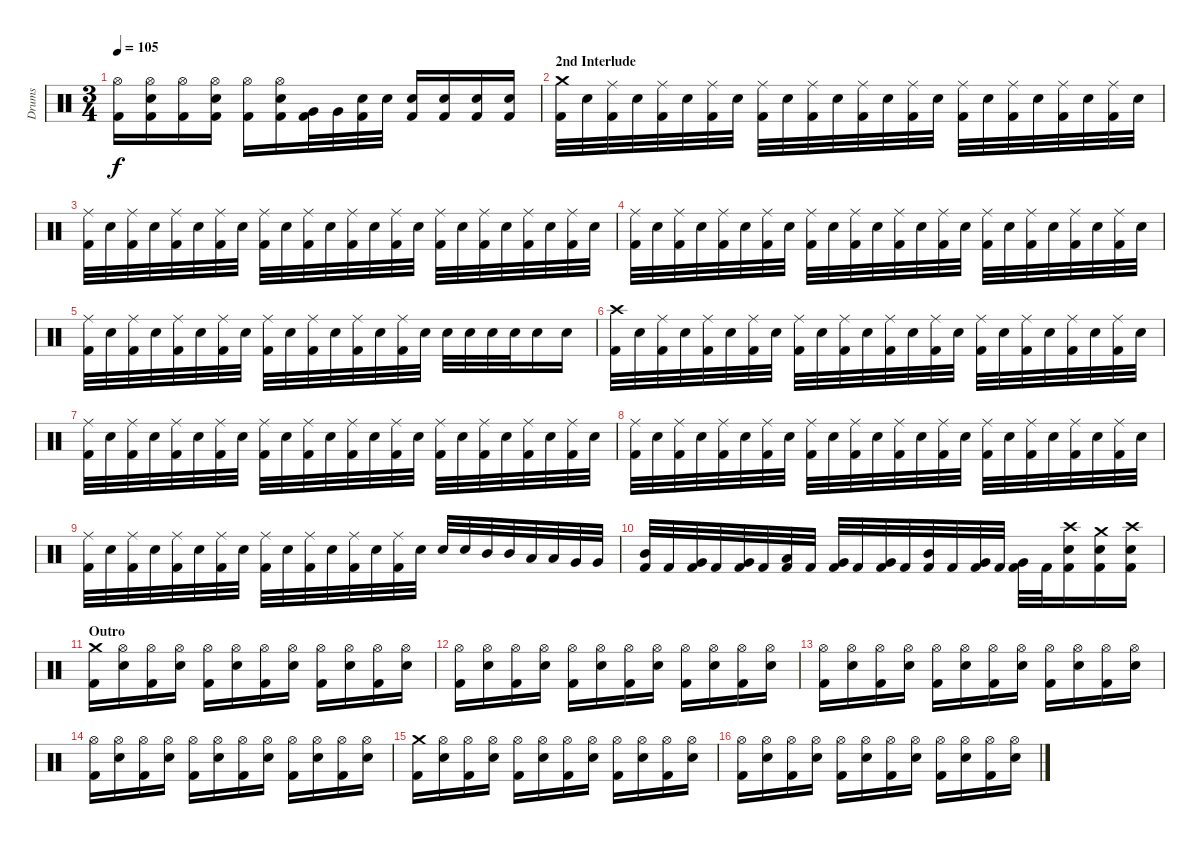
\track ("Drums" "Drums") {instrument percussion}
\staff {score}
\articulation defaults
\ts (3 4)
\tempo 105
\clef neutral
\ks c
("Kick (hit) 2" "Hi-Hat (open)").16{dy f} ("Kick (hit) 2" "Electric Snare (hit)" "Hi-Hat (open)").16 ("Kick (hit) 2" "Hi-Hat (open)").16 ("Kick (hit) 2" "Electric Snare (hit)" "Hi-Hat (open)").16 ("Kick (hit) 2" "Hi-Hat (open)").16 ("Kick (hit) 2" "Electric Snare (hit)" "Hi-Hat (open)").16 ("Kick (hit) 2" "Very Low Tom (hit)").32 "Very Low Tom (hit)".32 ("Kick (hit) 2" "Electric Snare (hit)").32 "Electric Snare (hit)".32 ("Kick (hit) 2" "Electric Snare (hit)").16 ("Kick (hit) 2" "Electric Snare (hit)").16 ("Kick (hit) 2" "Electric Snare (hit)").16 ("Kick (hit) 2" "Electric Snare (hit)").16 |
\section ("" "2nd Interlude")
("Kick (hit) 2" "Crash medium (hit)").32 "Electric Snare (hit)".32 ("Kick (hit) 2" "Ride (middle)").32 "Electric Snare (hit)".32 ("Kick (hit) 2" "Ride (middle)").32 "Electric Snare (hit)".32 ("Kick (hit) 2" "Ride (middle)").32 "Electric Snare (hit)".32 ("Kick (hit) 2" "Ride (middle)").32 "Electric Snare (hit)".32 ("Kick (hit) 2" "Ride (middle)").32 "Electric Snare (hit)".32 ("Kick (hit) 2" "Ride (middle)").32 "Electric Snare (hit)".32 ("Kick (hit) 2" "Ride (middle)").32 "Electric Snare (hit)".32 ("Kick (hit) 2" "Ride (middle)").32 "Electric Snare (hit)".32 ("Kick (hit) 2" "Ride (middle)").32 "Electric Snare (hit)".32 ("Kick (hit) 2" "Ride (middle)").32 "Electric Snare (hit)".32 ("Kick (hit) 2" "Ride (middle)").32 "Electric Snare (hit)".32 |
("Kick (hit) 2" "Ride (middle)").32 "Electric Snare (hit)".32 ("Kick (hit) 2" "Ride (middle)").32 "Electric Snare (hit)".32 ("Kick (hit) 2" "Ride (middle)").32 "Electric Snare (hit)".32 ("Kick (hit) 2" "Ride (middle)").32 "Electric Snare (hit)".32 ("Kick (hit) 2" "Ride (middle)").32 "Electric Snare (hit)".32 ("Kick (hit) 2" "Ride (middle)").32 "Electric Snare (hit)".32 ("Kick (hit) 2" "Ride (middle)").32 "Electric Snare (hit)".32 ("Kick (hit) 2" "Ride (middle)").32 "Electric Snare (hit)".32 ("Kick (hit) 2" "Ride (middle)").32 "Electric Snare (hit)".32 ("Kick (hit) 2" "Ride (middle)").32 "Electric Snare (hit)".32 ("Kick (hit) 2" "Ride (middle)").32 "Electric Snare (hit)".32 ("Kick (hit) 2" "Ride (middle)").32 "Electric Snare (hit)".32 |
("Kick (hit) 2" "Ride (middle)").32 "Electric Snare (hit)".32 ("Kick (hit) 2" "Ride (middle)").32 "Electric Snare (hit)".32 ("Kick (hit) 2" "Ride (middle)").32 "Electric Snare (hit)".32 ("Kick (hit) 2" "Ride (middle)").32 "Electric Snare (hit)".32 ("Kick (hit) 2" "Ride (middle)").32 "Electric Snare (hit)".32 ("Kick (hit) 2" "Ride (middle)").32 "Electric Snare (hit)".32 ("Kick (hit) 2" "Ride (middle)").32 "Electric Snare (hit)".32 ("Kick (hit) 2" "Ride (middle)").32 "Electric Snare (hit)".32 ("Kick (hit) 2" "Ride (middle)").32 "Electric Snare (hit)".32 ("Kick (hit) 2" "Ride (middle)").32 "Electric Snare (hit)".32 ("Kick (hit) 2" "Ride (middle)").32 "Electric Snare (hit)".32 ("Kick (hit) 2" "Ride (middle)").32 "Electric Snare (hit)".32 |
("Kick (hit) 2" "Ride (middle)").32 "Electric Snare (hit)".32 ("Kick (hit) 2" "Ride (middle)").32 "Electric Snare (hit)".32 ("Kick (hit) 2" "Ride (middle)").32 "Electric Snare (hit)".32 ("Kick (hit) 2" "Ride (middle)").32 "Electric Snare (hit)".32 ("Kick (hit) 2" "Ride (middle)").32 "Electric Snare (hit)".32 ("Kick (hit) 2" "Ride (middle)").32 "Electric Snare (hit)".32 ("Kick (hit) 2" "Ride (middle)").32 "Electric Snare (hit)".32 ("Kick (hit) 2" "Ride (middle)").32 "Electric Snare (hit)".32 "Electric Snare (hit)".32 "Electric Snare (hit)".32 "Electric Snare (hit)".32 "Electric Snare (hit)".32 "Electric Snare (hit)".16 "Electric Snare (hit)".16 |
("Kick (hit) 2" "Crash high (hit)").32 "Electric Snare (hit)".32 ("Kick (hit) 2" "Ride (middle)").32 "Electric Snare (hit)".32 ("Kick (hit) 2" "Ride (middle)").32 "Electric Snare (hit)".32 ("Kick (hit) 2" "Ride (middle)").32 "Electric Snare (hit)".32 ("Kick (hit) 2" "Ride (middle)").32 "Electric Snare (hit)".32 ("Kick (hit) 2" "Ride (middle)").32 "Electric Snare (hit)".32 ("Kick (hit) 2" "Ride (middle)").32 "Electric Snare (hit)".32 ("Kick (hit) 2" "Ride (middle)").32 "Electric Snare (hit)".32 ("Kick (hit) 2" "Ride (middle)").32 "Electric Snare (hit)".32 ("Kick (hit) 2" "Ride (middle)").32 "Electric Snare (hit)".32 ("Kick (hit) 2" "Ride (middle)").32 "Electric Snare (hit)".32 ("Kick (hit) 2" "Ride (middle)").32 "Electric Snare (hit)".32 |
("Kick (hit) 2" "Ride (middle)").32 "Electric Snare (hit)".32 ("Kick (hit) 2" "Ride (middle)").32 "Electric Snare (hit)".32 ("Kick (hit) 2" "Ride (middle)").32 "Electric Snare (hit)".32 ("Kick (hit) 2" "Ride (middle)").32 "Electric Snare (hit)".32 ("Kick (hit) 2" "Ride (middle)").32 "Electric Snare (hit)".32 ("Kick (hit) 2" "Ride (middle)").32 "Electric Snare (hit)".32 ("Kick (hit) 2" "Ride (middle)").32 "Electric Snare (hit)".32 ("Kick (hit) 2" "Ride (middle)").32 "Electric Snare (hit)".32 ("Kick (hit) 2" "Ride (middle)").32 "Electric Snare (hit)".32 ("Kick (hit) 2" "Ride (middle)").32 "Electric Snare (hit)".32 ("Kick (hit) 2" "Ride (middle)").32 "Electric Snare (hit)".32 ("Kick (hit) 2" "Ride (middle)").32 "Electric Snare (hit)".32 |
("Kick (hit) 2" "Ride (middle)").32 "Electric Snare (hit)".32 ("Kick (hit) 2" "Ride (middle)").32 "Electric Snare (hit)".32 ("Kick (hit) 2" "Ride (middle)").32 "Electric Snare (hit)".32 ("Kick (hit) 2" "Ride (middle)").32 "Electric Snare (hit)".32 ("Kick (hit) 2" "Ride (middle)").32 "Electric Snare (hit)".32 ("Kick (hit) 2" "Ride (middle)").32 "Electric Snare (hit)".32 ("Kick (hit) 2" "Ride (middle)").32 "Electric Snare (hit)".32 ("Kick (hit) 2" "Ride (middle)").32 "Electric Snare (hit)".32 ("Kick (hit) 2" "Ride (middle)").32 "Electric Snare (hit)".32 ("Kick (hit) 2" "Ride (middle)").32 "Electric Snare (hit)".32 ("Kick (hit) 2" "Ride (middle)").32 "Electric Snare (hit)".32 ("Kick (hit) 2" "Ride (middle)").32 "Electric Snare (hit)".32 |
("Kick (hit) 2" "Ride (middle)").32 "Electric Snare (hit)".32 ("Kick (hit) 2" "Ride (middle)").32 "Electric Snare (hit)".32 ("Kick (hit) 2" "Ride (middle)").32 "Electric Snare (hit)".32 ("Kick (hit) 2" "Ride (middle)").32 "Electric Snare (hit)".32 ("Kick (hit) 2" "Ride (middle)").32 "Electric Snare (hit)".32 ("Kick (hit) 2" "Ride (middle)").32 "Electric Snare (hit)".32 ("Kick (hit) 2" "Ride (middle)").32 "Electric Snare (hit)".32 ("Kick (hit) 2" "Ride (middle)").32 "Electric Snare (hit)".32 "Electric Snare (hit)".32 "Electric Snare (hit)".32 "Mid Tom (hit)".32 "Mid Tom (hit)".32 "Low Tom (hit)".32 "Low Tom (hit)".32 "Very Low Tom (hit)".32 "Very Low Tom (hit)".32 |
("Kick (hit) 2" "Mid Tom (hit)").32 "Kick (hit) 2".32 ("Kick (hit) 2" "Very Low Tom (hit)").32 "Kick (hit) 2".32 ("Kick (hit) 2" "Very Low Tom (hit)").32 "Kick (hit) 2".32 ("Kick (hit) 2" "Low Tom (hit)").32 "Kick (hit) 2".32 ("Kick (hit) 2" "Very Low Tom (hit)").32 "Kick (hit) 2".32 ("Kick (hit) 2" "Very Low Tom (hit)").32 "Kick (hit) 2".32 ("Kick (hit) 2" "Mid Tom (hit)").32 "Kick (hit) 2".32 ("Kick (hit) 2" "Very Low Tom (hit)").32 "Kick (hit) 2".32 ("Kick (hit) 2" "Very Low Tom (hit)").32 "Kick (hit) 2".32 ("Kick (hit) 2" "Electric Snare (hit)" "Crash high (hit)").16 ("Kick (hit) 2" "Electric Snare (hit)" "Crash medium (hit)").16 ("Kick (hit) 2" "Electric Snare (hit)" "Crash high (hit)").16 |
\section ("" "Outro")
("Kick (hit) 2" "Crash medium (hit)").16 ("Electric Snare (hit)" "Hi-Hat (open)").16 ("Kick (hit) 2" "Hi-Hat (open)").16 ("Electric Snare (hit)" "Hi-Hat (open)").16 ("Kick (hit) 2" "Hi-Hat (open)").16 ("Electric Snare (hit)" "Hi-Hat (open)").16 ("Kick (hit) 2" "Hi-Hat (open)").16 ("Electric Snare (hit)" "Hi-Hat (open)").16 ("Kick (hit) 2" "Hi-Hat (open)").16 ("Electric Snare (hit)" "Hi-Hat (open)").16 ("Kick (hit) 2" "Hi-Hat (open)").16 ("Electric Snare (hit)" "Hi-Hat (open)").16 |
("Kick (hit) 2" "Hi-Hat (open)").16 ("Electric Snare (hit)" "Hi-Hat (open)").16 ("Kick (hit) 2" "Hi-Hat (open)").16 ("Electric Snare (hit)" "Hi-Hat (open)").16 ("Kick (hit) 2" "Hi-Hat (open)").16 ("Electric Snare (hit)" "Hi-Hat (open)").16 ("Kick (hit) 2" "Hi-Hat (open)").16 ("Electric Snare (hit)" "Hi-Hat (open)").16 ("Kick (hit) 2" "Hi-Hat (open)").16 ("Electric Snare (hit)" "Hi-Hat (open)").16 ("Kick (hit) 2" "Hi-Hat (open)").16 ("Electric Snare (hit)" "Hi-Hat (open)").16 |
("Kick (hit) 2" "Hi-Hat (open)").16 ("Electric Snare (hit)" "Hi-Hat (open)").16 ("Kick (hit) 2" "Hi-Hat (open)").16 ("Electric Snare (hit)" "Hi-Hat (open)").16 ("Kick (hit) 2" "Hi-Hat (open)").16 ("Electric Snare (hit)" "Hi-Hat (open)").16 ("Kick (hit) 2" "Hi-Hat (open)").16 ("Electric Snare (hit)" "Hi-Hat (open)").16 ("Kick (hit) 2" "Hi-Hat (open)").16 ("Electric Snare (hit)" "Hi-Hat (open)").16 ("Kick (hit) 2" "Hi-Hat (open)").16 ("Electric Snare (hit)" "Hi-Hat (open)").16 |
("Kick (hit) 2" "Hi-Hat (open)").16 ("Electric Snare (hit)" "Hi-Hat (open)").16 ("Kick (hit) 2" "Hi-Hat (open)").16 ("Electric Snare (hit)" "Hi-Hat (open)").16 ("Kick (hit) 2" "Hi-Hat (open)").16 ("Electric Snare (hit)" "Hi-Hat (open)").16 ("Kick (hit) 2" "Hi-Hat (open)").16 ("Electric Snare (hit)" "Hi-Hat (open)").16 ("Kick (hit) 2" "Hi-Hat (open)").16 ("Electric Snare (hit)" "Hi-Hat (open)").16 ("Kick (hit) 2" "Hi-Hat (open)").16 ("Electric Snare (hit)" "Hi-Hat (open)").16 |
("Kick (hit) 2" "Crash medium (hit)").16 ("Electric Snare (hit)" "Hi-Hat (open)").16 ("Kick (hit) 2" "Hi-Hat (open)").16 ("Electric Snare (hit)" "Hi-Hat (open)").16 ("Kick (hit) 2" "Hi-Hat (open)").16 ("Electric Snare (hit)" "Hi-Hat (open)").16 ("Kick (hit) 2" "Hi-Hat (open)").16 ("Electric Snare (hit)" "Hi-Hat (open)").16 ("Kick (hit) 2" "Hi-Hat (open)").16 ("Electric Snare (hit)" "Hi-Hat (open)").16 ("Kick (hit) 2" "Hi-Hat (open)").16 ("Electric Snare (hit)" "Hi-Hat (open)").16 |
("Kick (hit) 2" "Hi-Hat (open)").16 ("Electric Snare (hit)" "Hi-Hat (open)").16 ("Kick (hit) 2" "Hi-Hat (open)").16 ("Electric Snare (hit)" "Hi-Hat (open)").16 ("Kick (hit) 2" "Hi-Hat (open)").16 ("Electric Snare (hit)" "Hi-Hat (open)").16 ("Kick (hit) 2" "Hi-Hat (open)").16 ("Electric Snare (hit)" "Hi-Hat (open)").16 ("Kick (hit) 2" "Hi-Hat (open)").16 ("Electric Snare (hit)" "Hi-Hat (open)").16 ("Kick (hit) 2" "Hi-Hat (open)").16 ("Electric Snare (hit)" "Hi-Hat (open)").16
